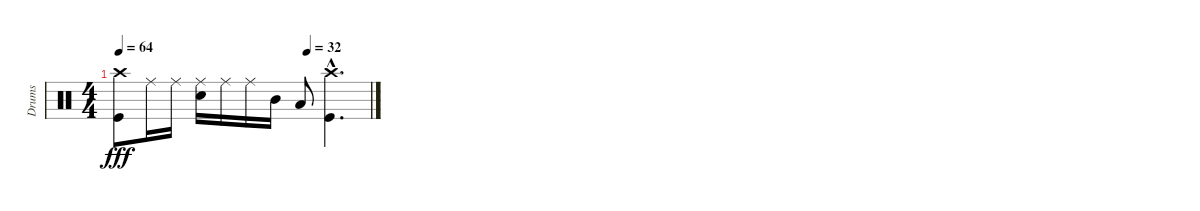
\track ("Drums" "Drums") {instrument percussion}
\staff {score}
\articulation defaults
\ts (4 4)
\tempo 64
\tempo (32 0.75)
\clef neutral
\ks c
("Crash high (hit)" "Kick (hit)").8{dy fff} "Ride (middle)".16 "Ride (middle)".16 ("Ride (middle)" "Snare (hit) 2").16 "Ride (middle)".16 "Ride (middle)".16 "Mid Tom (hit)".16 "Low Tom (hit)".8 ("Crash high (hit)"{hac} "Kick (hit)"{hac}).4{d}
